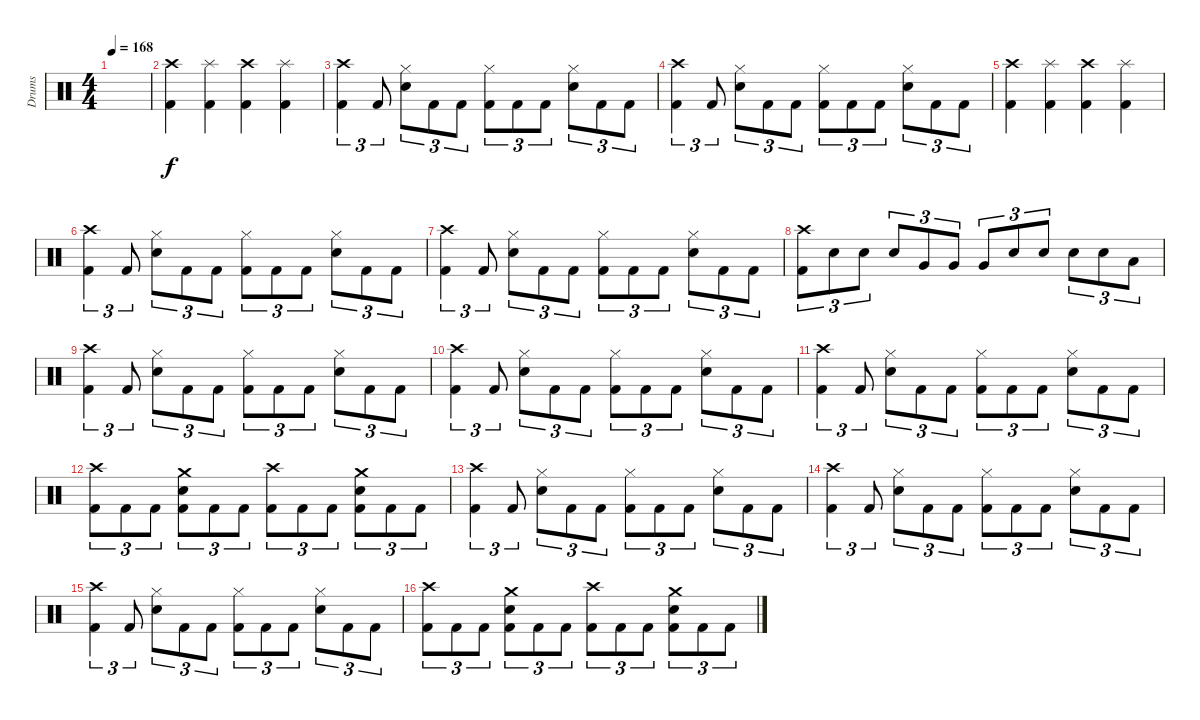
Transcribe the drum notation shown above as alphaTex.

\track ("Drums" "Drums") {instrument percussion}
\staff {score}
\articulation defaults
\ts (4 4)
\tempo 168
\clef neutral
\ks c
|
("Kick (hit) 2" "Crash high (hit)").4 ("Kick (hit) 2" "Splash (hit)").4 ("Kick (hit) 2" "Crash high (hit)").4 ("Kick (hit) 2" "Splash (hit)").4 |
("Kick (hit) 2" "Crash high (hit)").4{tu (3 2)} "Kick (hit) 2".8{tu (3 2)} ("Hi-Hat (closed)" "Electric Snare (hit)").8{tu (3 2)} "Kick (hit) 2".8{tu (3 2)} "Kick (hit) 2".8{tu (3 2)} ("Kick (hit) 2" "Hi-Hat (closed)").8{tu (3 2)} "Kick (hit) 2".8{tu (3 2)} "Kick (hit) 2".8{tu (3 2)} ("Hi-Hat (closed)" "Electric Snare (hit)").8{tu (3 2)} "Kick (hit) 2".8{tu (3 2)} "Kick (hit) 2".8{tu (3 2)} |
("Kick (hit) 2" "Crash high (hit)").4{tu (3 2)} "Kick (hit) 2".8{tu (3 2)} ("Hi-Hat (closed)" "Electric Snare (hit)").8{tu (3 2)} "Kick (hit) 2".8{tu (3 2)} "Kick (hit) 2".8{tu (3 2)} ("Kick (hit) 2" "Hi-Hat (closed)").8{tu (3 2)} "Kick (hit) 2".8{tu (3 2)} "Kick (hit) 2".8{tu (3 2)} ("Hi-Hat (closed)" "Electric Snare (hit)").8{tu (3 2)} "Kick (hit) 2".8{tu (3 2)} "Kick (hit) 2".8{tu (3 2)} |
("Kick (hit) 2" "Crash high (hit)").4 ("Kick (hit) 2" "Splash (hit)").4 ("Kick (hit) 2" "Crash high (hit)").4 ("Kick (hit) 2" "Splash (hit)").4 |
("Kick (hit) 2" "Crash high (hit)").4{tu (3 2)} "Kick (hit) 2".8{tu (3 2)} ("Hi-Hat (closed)" "Electric Snare (hit)").8{tu (3 2)} "Kick (hit) 2".8{tu (3 2)} "Kick (hit) 2".8{tu (3 2)} ("Kick (hit) 2" "Hi-Hat (closed)").8{tu (3 2)} "Kick (hit) 2".8{tu (3 2)} "Kick (hit) 2".8{tu (3 2)} ("Hi-Hat (closed)" "Electric Snare (hit)").8{tu (3 2)} "Kick (hit) 2".8{tu (3 2)} "Kick (hit) 2".8{tu (3 2)} |
("Kick (hit) 2" "Crash high (hit)").4{tu (3 2)} "Kick (hit) 2".8{tu (3 2)} ("Hi-Hat (closed)" "Electric Snare (hit)").8{tu (3 2)} "Kick (hit) 2".8{tu (3 2)} "Kick (hit) 2".8{tu (3 2)} ("Kick (hit) 2" "Hi-Hat (closed)").8{tu (3 2)} "Kick (hit) 2".8{tu (3 2)} "Kick (hit) 2".8{tu (3 2)} ("Hi-Hat (closed)" "Electric Snare (hit)").8{tu (3 2)} "Kick (hit) 2".8{tu (3 2)} "Kick (hit) 2".8{tu (3 2)} |
("Kick (hit) 2" "Crash high (hit)").8{tu (3 2)} "Electric Snare (hit)".8{tu (3 2)} "Electric Snare (hit)".8{tu (3 2)} "Electric Snare (hit)".8{tu (3 2)} "Very Low Tom (hit)".8{tu (3 2) balance 11} "Very Low Tom (hit)".8{tu (3 2)} "Very Low Tom (hit)".8{tu (3 2)} "Electric Snare (hit)".8{tu (3 2) balance 8} "Electric Snare (hit)".8{tu (3 2)} "Electric Snare (hit)".8{tu (3 2)} "Electric Snare (hit)".8{tu (3 2)} "Low Floor Tom (hit)".8{tu (3 2) balance 12} |
("Kick (hit) 2" "Crash high (hit)").4{tu (3 2)} "Kick (hit) 2".8{tu (3 2)} ("Hi-Hat (closed)" "Electric Snare (hit)").8{tu (3 2)} "Kick (hit) 2".8{tu (3 2)} "Kick (hit) 2".8{tu (3 2)} ("Kick (hit) 2" "Hi-Hat (closed)").8{tu (3 2)} "Kick (hit) 2".8{tu (3 2)} "Kick (hit) 2".8{tu (3 2)} ("Hi-Hat (closed)" "Electric Snare (hit)").8{tu (3 2)} "Kick (hit) 2".8{tu (3 2)} "Kick (hit) 2".8{tu (3 2)} |
("Kick (hit) 2" "Crash high (hit)").4{tu (3 2)} "Kick (hit) 2".8{tu (3 2)} ("Hi-Hat (closed)" "Electric Snare (hit)").8{tu (3 2)} "Kick (hit) 2".8{tu (3 2)} "Kick (hit) 2".8{tu (3 2)} ("Kick (hit) 2" "Hi-Hat (closed)").8{tu (3 2)} "Kick (hit) 2".8{tu (3 2)} "Kick (hit) 2".8{tu (3 2)} ("Hi-Hat (closed)" "Electric Snare (hit)").8{tu (3 2)} "Kick (hit) 2".8{tu (3 2)} "Kick (hit) 2".8{tu (3 2)} |
("Kick (hit) 2" "Crash high (hit)").4{tu (3 2)} "Kick (hit) 2".8{tu (3 2)} ("Hi-Hat (closed)" "Electric Snare (hit)").8{tu (3 2)} "Kick (hit) 2".8{tu (3 2)} "Kick (hit) 2".8{tu (3 2)} ("Kick (hit) 2" "Hi-Hat (closed)").8{tu (3 2)} "Kick (hit) 2".8{tu (3 2)} "Kick (hit) 2".8{tu (3 2)} ("Hi-Hat (closed)" "Electric Snare (hit)").8{tu (3 2)} "Kick (hit) 2".8{tu (3 2)} "Kick (hit) 2".8{tu (3 2)} |
("Kick (hit) 2" "Crash high (hit)").8{tu (3 2)} "Kick (hit) 2".8{tu (3 2)} "Kick (hit) 2".8{tu (3 2)} ("Electric Snare (hit)" "Crash medium (hit)" "Kick (hit) 2").8{tu (3 2)} "Kick (hit) 2".8{tu (3 2)} "Kick (hit) 2".8{tu (3 2)} ("Kick (hit) 2" "Crash high (hit)").8{tu (3 2)} "Kick (hit) 2".8{tu (3 2)} "Kick (hit) 2".8{tu (3 2)} ("Electric Snare (hit)" "Crash medium (hit)" "Kick (hit) 2").8{tu (3 2)} "Kick (hit) 2".8{tu (3 2)} "Kick (hit) 2".8{tu (3 2)} |
("Kick (hit) 2" "Crash high (hit)").4{tu (3 2)} "Kick (hit) 2".8{tu (3 2)} ("Hi-Hat (closed)" "Electric Snare (hit)").8{tu (3 2)} "Kick (hit) 2".8{tu (3 2)} "Kick (hit) 2".8{tu (3 2)} ("Kick (hit) 2" "Hi-Hat (closed)").8{tu (3 2)} "Kick (hit) 2".8{tu (3 2)} "Kick (hit) 2".8{tu (3 2)} ("Hi-Hat (closed)" "Electric Snare (hit)").8{tu (3 2)} "Kick (hit) 2".8{tu (3 2)} "Kick (hit) 2".8{tu (3 2)} |
("Kick (hit) 2" "Crash high (hit)").4{tu (3 2)} "Kick (hit) 2".8{tu (3 2)} ("Hi-Hat (closed)" "Electric Snare (hit)").8{tu (3 2)} "Kick (hit) 2".8{tu (3 2)} "Kick (hit) 2".8{tu (3 2)} ("Kick (hit) 2" "Hi-Hat (closed)").8{tu (3 2)} "Kick (hit) 2".8{tu (3 2)} "Kick (hit) 2".8{tu (3 2)} ("Hi-Hat (closed)" "Electric Snare (hit)").8{tu (3 2)} "Kick (hit) 2".8{tu (3 2)} "Kick (hit) 2".8{tu (3 2)} |
("Kick (hit) 2" "Crash high (hit)").4{tu (3 2)} "Kick (hit) 2".8{tu (3 2)} ("Hi-Hat (closed)" "Electric Snare (hit)").8{tu (3 2)} "Kick (hit) 2".8{tu (3 2)} "Kick (hit) 2".8{tu (3 2)} ("Kick (hit) 2" "Hi-Hat (closed)").8{tu (3 2)} "Kick (hit) 2".8{tu (3 2)} "Kick (hit) 2".8{tu (3 2)} ("Hi-Hat (closed)" "Electric Snare (hit)").8{tu (3 2)} "Kick (hit) 2".8{tu (3 2)} "Kick (hit) 2".8{tu (3 2)} |
("Kick (hit) 2" "Crash high (hit)").8{tu (3 2)} "Kick (hit) 2".8{tu (3 2)} "Kick (hit) 2".8{tu (3 2)} ("Electric Snare (hit)" "Crash medium (hit)" "Kick (hit) 2").8{tu (3 2)} "Kick (hit) 2".8{tu (3 2)} "Kick (hit) 2".8{tu (3 2)} ("Kick (hit) 2" "Crash high (hit)").8{tu (3 2)} "Kick (hit) 2".8{tu (3 2)} "Kick (hit) 2".8{tu (3 2)} ("Electric Snare (hit)" "Crash medium (hit)" "Kick (hit) 2").8{tu (3 2)} "Kick (hit) 2".8{tu (3 2)} "Kick (hit) 2".8{tu (3 2)}
